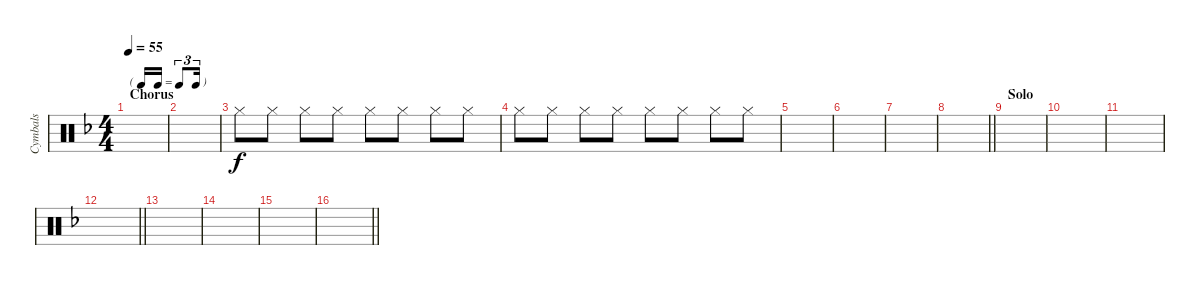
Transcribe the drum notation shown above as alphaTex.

\track ("Cymbals" "Cymbals") {instrument percussion}
\staff {score}
\articulation defaults
\ts (4 4)
\tf triplet16th
\section ("" "Chorus")
\tempo 55
\clef neutral
\ks dminor
|
|
"Hi-Hat (closed)".8 "Hi-Hat (closed)".8 "Hi-Hat (closed)".8 "Hi-Hat (closed)".8 "Hi-Hat (closed)".8 "Hi-Hat (closed)".8 "Hi-Hat (closed)".8 "Hi-Hat (closed)".8 |
"Hi-Hat (closed)".8 "Hi-Hat (closed)".8 "Hi-Hat (closed)".8 "Hi-Hat (closed)".8 "Hi-Hat (closed)".8 "Hi-Hat (closed)".8 "Hi-Hat (closed)".8 "Hi-Hat (closed)".8 |
|
|
|
\barLineRight lightlight
|
\section ("" "Solo")
|
|
|
\barLineRight lightlight
|
|
|
|
\barLineRight lightlight
